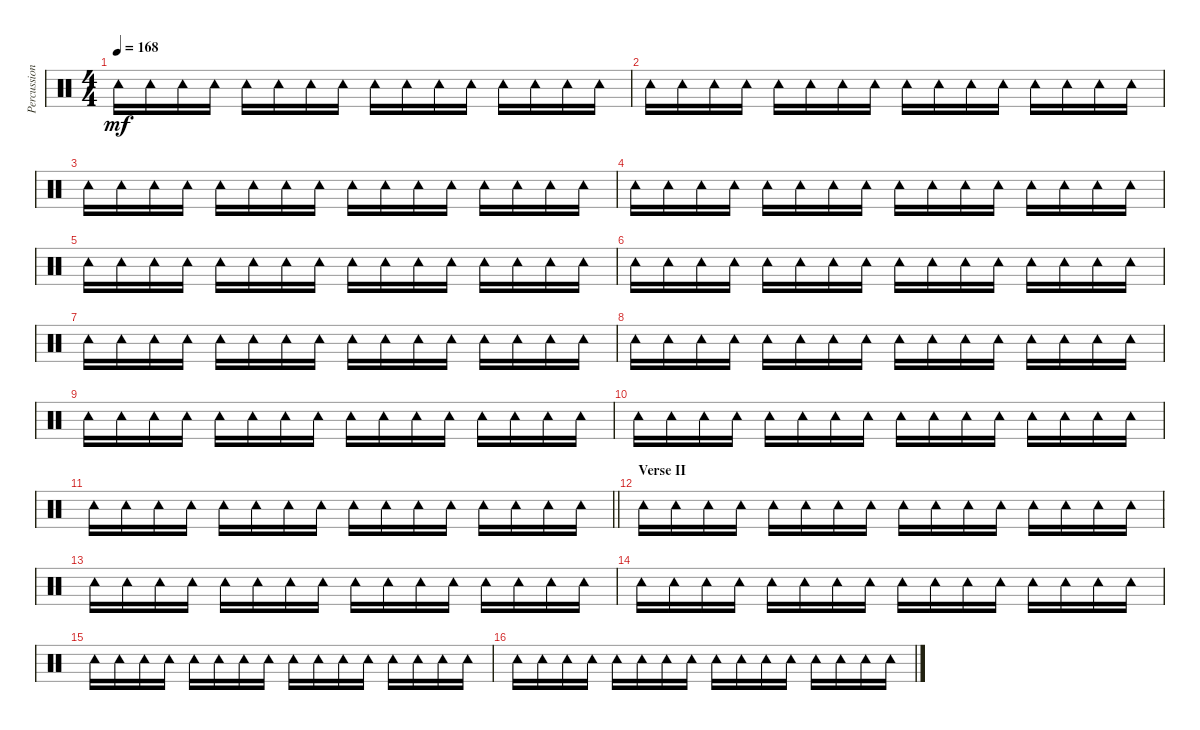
\track ("Percussion" "Percussion") {instrument percussion}
\staff {score}
\articulation defaults
\ts (4 4)
\tempo 168
\clef neutral
\ks c "Tambourine (hit)".16{dy mf} "Tambourine (hit)".16 "Tambourine (hit)".16 "Tambourine (hit)".16 "Tambourine (hit)".16 "Tambourine (hit)".16 "Tambourine (hit)".16 "Tambourine (hit)".16 "Tambourine (hit)".16 "Tambourine (hit)".16 "Tambourine (hit)".16 "Tambourine (hit)".16 "Tambourine (hit)".16 "Tambourine (hit)".16 "Tambourine (hit)".16 "Tambourine (hit)".16
|
"Tambourine (hit)".16 "Tambourine (hit)".16 "Tambourine (hit)".16 "Tambourine (hit)".16 "Tambourine (hit)".16 "Tambourine (hit)".16 "Tambourine (hit)".16 "Tambourine (hit)".16 "Tambourine (hit)".16 "Tambourine (hit)".16 "Tambourine (hit)".16 "Tambourine (hit)".16 "Tambourine (hit)".16 "Tambourine (hit)".16 "Tambourine (hit)".16 "Tambourine (hit)".16 |
"Tambourine (hit)".16 "Tambourine (hit)".16 "Tambourine (hit)".16 "Tambourine (hit)".16 "Tambourine (hit)".16 "Tambourine (hit)".16 "Tambourine (hit)".16 "Tambourine (hit)".16 "Tambourine (hit)".16 "Tambourine (hit)".16 "Tambourine (hit)".16 "Tambourine (hit)".16 "Tambourine (hit)".16 "Tambourine (hit)".16 "Tambourine (hit)".16 "Tambourine (hit)".16 |
"Tambourine (hit)".16 "Tambourine (hit)".16 "Tambourine (hit)".16 "Tambourine (hit)".16 "Tambourine (hit)".16 "Tambourine (hit)".16 "Tambourine (hit)".16 "Tambourine (hit)".16 "Tambourine (hit)".16 "Tambourine (hit)".16 "Tambourine (hit)".16 "Tambourine (hit)".16 "Tambourine (hit)".16 "Tambourine (hit)".16 "Tambourine (hit)".16 "Tambourine (hit)".16 |
"Tambourine (hit)".16 "Tambourine (hit)".16 "Tambourine (hit)".16 "Tambourine (hit)".16 "Tambourine (hit)".16 "Tambourine (hit)".16 "Tambourine (hit)".16 "Tambourine (hit)".16 "Tambourine (hit)".16 "Tambourine (hit)".16 "Tambourine (hit)".16 "Tambourine (hit)".16 "Tambourine (hit)".16 "Tambourine (hit)".16 "Tambourine (hit)".16 "Tambourine (hit)".16 |
"Tambourine (hit)".16 "Tambourine (hit)".16 "Tambourine (hit)".16 "Tambourine (hit)".16 "Tambourine (hit)".16 "Tambourine (hit)".16 "Tambourine (hit)".16 "Tambourine (hit)".16 "Tambourine (hit)".16 "Tambourine (hit)".16 "Tambourine (hit)".16 "Tambourine (hit)".16 "Tambourine (hit)".16 "Tambourine (hit)".16 "Tambourine (hit)".16 "Tambourine (hit)".16 |
"Tambourine (hit)".16 "Tambourine (hit)".16 "Tambourine (hit)".16 "Tambourine (hit)".16 "Tambourine (hit)".16 "Tambourine (hit)".16 "Tambourine (hit)".16 "Tambourine (hit)".16 "Tambourine (hit)".16 "Tambourine (hit)".16 "Tambourine (hit)".16 "Tambourine (hit)".16 "Tambourine (hit)".16 "Tambourine (hit)".16 "Tambourine (hit)".16 "Tambourine (hit)".16 |
"Tambourine (hit)".16 "Tambourine (hit)".16 "Tambourine (hit)".16 "Tambourine (hit)".16 "Tambourine (hit)".16 "Tambourine (hit)".16 "Tambourine (hit)".16 "Tambourine (hit)".16 "Tambourine (hit)".16 "Tambourine (hit)".16 "Tambourine (hit)".16 "Tambourine (hit)".16 "Tambourine (hit)".16 "Tambourine (hit)".16 "Tambourine (hit)".16 "Tambourine (hit)".16 |
"Tambourine (hit)".16 "Tambourine (hit)".16 "Tambourine (hit)".16 "Tambourine (hit)".16 "Tambourine (hit)".16 "Tambourine (hit)".16 "Tambourine (hit)".16 "Tambourine (hit)".16 "Tambourine (hit)".16 "Tambourine (hit)".16 "Tambourine (hit)".16 "Tambourine (hit)".16 "Tambourine (hit)".16 "Tambourine (hit)".16 "Tambourine (hit)".16 "Tambourine (hit)".16 |
"Tambourine (hit)".16 "Tambourine (hit)".16 "Tambourine (hit)".16 "Tambourine (hit)".16 "Tambourine (hit)".16 "Tambourine (hit)".16 "Tambourine (hit)".16 "Tambourine (hit)".16 "Tambourine (hit)".16 "Tambourine (hit)".16 "Tambourine (hit)".16 "Tambourine (hit)".16 "Tambourine (hit)".16 "Tambourine (hit)".16 "Tambourine (hit)".16 "Tambourine (hit)".16 |
\barLineRight lightlight "Tambourine (hit)".16 "Tambourine (hit)".16 "Tambourine (hit)".16 "Tambourine (hit)".16 "Tambourine (hit)".16 "Tambourine (hit)".16 "Tambourine (hit)".16 "Tambourine (hit)".16 "Tambourine (hit)".16 "Tambourine (hit)".16 "Tambourine (hit)".16 "Tambourine (hit)".16 "Tambourine (hit)".16 "Tambourine (hit)".16 "Tambourine (hit)".16 "Tambourine (hit)".16
|
\section ("" "Verse II")
"Tambourine (hit)".16 "Tambourine (hit)".16 "Tambourine (hit)".16 "Tambourine (hit)".16 "Tambourine (hit)".16 "Tambourine (hit)".16 "Tambourine (hit)".16 "Tambourine (hit)".16 "Tambourine (hit)".16 "Tambourine (hit)".16 "Tambourine (hit)".16 "Tambourine (hit)".16 "Tambourine (hit)".16 "Tambourine (hit)".16 "Tambourine (hit)".16 "Tambourine (hit)".16 |
"Tambourine (hit)".16 "Tambourine (hit)".16 "Tambourine (hit)".16 "Tambourine (hit)".16 "Tambourine (hit)".16 "Tambourine (hit)".16 "Tambourine (hit)".16 "Tambourine (hit)".16 "Tambourine (hit)".16 "Tambourine (hit)".16 "Tambourine (hit)".16 "Tambourine (hit)".16 "Tambourine (hit)".16 "Tambourine (hit)".16 "Tambourine (hit)".16 "Tambourine (hit)".16 |
"Tambourine (hit)".16 "Tambourine (hit)".16 "Tambourine (hit)".16 "Tambourine (hit)".16 "Tambourine (hit)".16 "Tambourine (hit)".16 "Tambourine (hit)".16 "Tambourine (hit)".16 "Tambourine (hit)".16 "Tambourine (hit)".16 "Tambourine (hit)".16 "Tambourine (hit)".16 "Tambourine (hit)".16 "Tambourine (hit)".16 "Tambourine (hit)".16 "Tambourine (hit)".16 |
"Tambourine (hit)".16 "Tambourine (hit)".16 "Tambourine (hit)".16 "Tambourine (hit)".16 "Tambourine (hit)".16 "Tambourine (hit)".16 "Tambourine (hit)".16 "Tambourine (hit)".16 "Tambourine (hit)".16 "Tambourine (hit)".16 "Tambourine (hit)".16 "Tambourine (hit)".16 "Tambourine (hit)".16 "Tambourine (hit)".16 "Tambourine (hit)".16 "Tambourine (hit)".16 |
"Tambourine (hit)".16 "Tambourine (hit)".16 "Tambourine (hit)".16 "Tambourine (hit)".16 "Tambourine (hit)".16 "Tambourine (hit)".16 "Tambourine (hit)".16 "Tambourine (hit)".16 "Tambourine (hit)".16 "Tambourine (hit)".16 "Tambourine (hit)".16 "Tambourine (hit)".16 "Tambourine (hit)".16 "Tambourine (hit)".16 "Tambourine (hit)".16 "Tambourine (hit)".16
